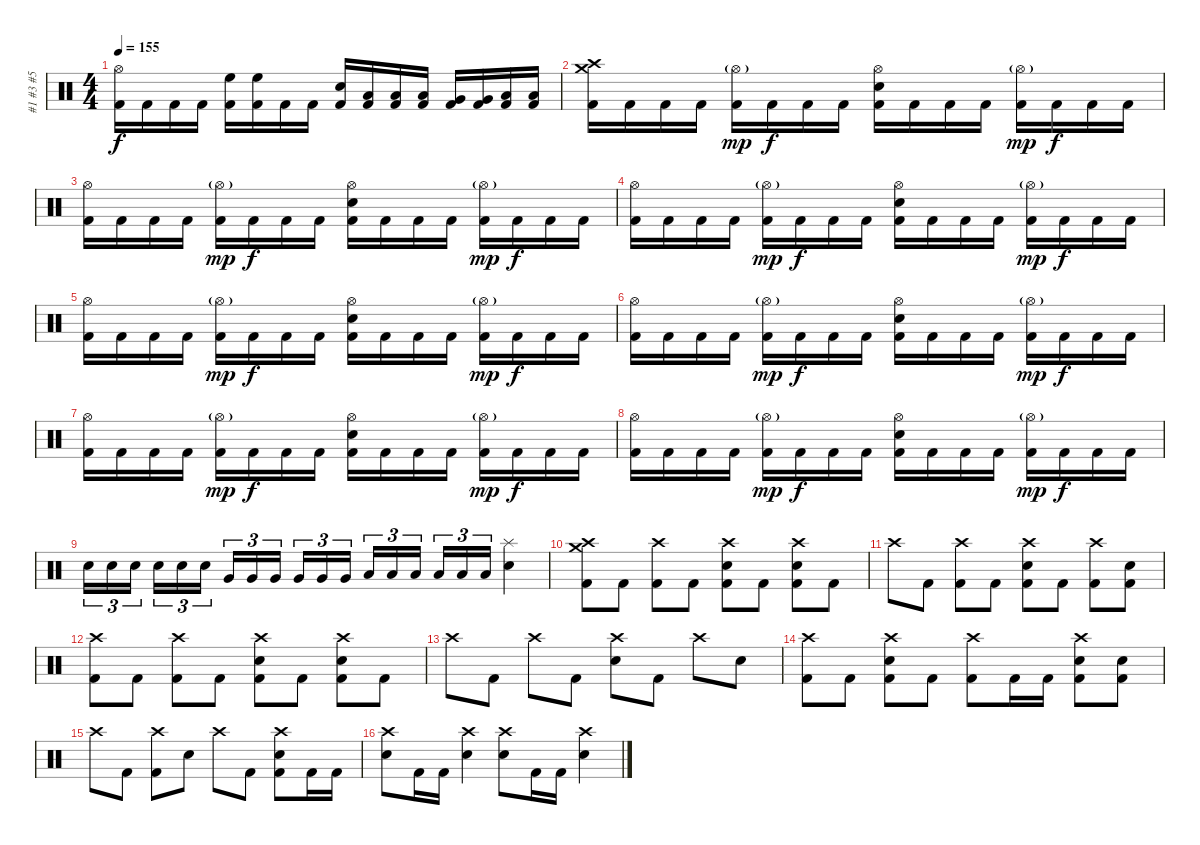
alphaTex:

\track ("#1 #3 #5" "#1 #3 #5") {instrument percussion}
\staff {score}
\articulation defaults
\ts (4 4)
\tempo 155
\clef neutral
\ks c
("Hi-Hat (open)" "Kick (hit) 2").16{dy f} "Kick (hit) 2".16 "Kick (hit) 2".16 "Kick (hit) 2".16 ("High Floor Tom (hit)" "Kick (hit) 2").16 ("High Floor Tom (hit)" "Kick (hit) 2").16 "Kick (hit) 2".16 "Kick (hit) 2".16 ("Electric Snare (hit)" "Kick (hit) 2").16 ("Low Tom (hit)" "Kick (hit) 2").16 ("Low Tom (hit)" "Kick (hit) 2").16 ("Low Tom (hit)" "Kick (hit) 2").16 ("Very Low Tom (hit)" "Kick (hit) 2").16 ("Very Low Tom (hit)" "Kick (hit) 2").16 ("Low Floor Tom (hit)" "Kick (hit) 2").16 ("Low Floor Tom (hit)" "Kick (hit) 2").16 |
("Crash high (hit)" "Crash medium (hit)" "Kick (hit) 2").16 "Kick (hit) 2".16 "Kick (hit) 2".16 "Kick (hit) 2".16 ("Hi-Hat (open)"{g} "Kick (hit) 2").16{dy mp} "Kick (hit) 2".16{dy f} "Kick (hit) 2".16 "Kick (hit) 2".16 ("Hi-Hat (open)" "Electric Snare (hit)" "Kick (hit) 2").16 "Kick (hit) 2".16 "Kick (hit) 2".16 "Kick (hit) 2".16 ("Hi-Hat (open)"{g} "Kick (hit) 2").16{dy mp} "Kick (hit) 2".16{dy f} "Kick (hit) 2".16 "Kick (hit) 2".16 |
("Hi-Hat (open)" "Kick (hit) 2").16 "Kick (hit) 2".16 "Kick (hit) 2".16 "Kick (hit) 2".16 ("Hi-Hat (open)"{g} "Kick (hit) 2").16{dy mp} "Kick (hit) 2".16{dy f} "Kick (hit) 2".16 "Kick (hit) 2".16 ("Hi-Hat (open)" "Electric Snare (hit)" "Kick (hit) 2").16 "Kick (hit) 2".16 "Kick (hit) 2".16 "Kick (hit) 2".16 ("Hi-Hat (open)"{g} "Kick (hit) 2").16{dy mp} "Kick (hit) 2".16{dy f} "Kick (hit) 2".16 "Kick (hit) 2".16 |
("Hi-Hat (open)" "Kick (hit) 2").16 "Kick (hit) 2".16 "Kick (hit) 2".16 "Kick (hit) 2".16 ("Hi-Hat (open)"{g} "Kick (hit) 2").16{dy mp} "Kick (hit) 2".16{dy f} "Kick (hit) 2".16 "Kick (hit) 2".16 ("Hi-Hat (open)" "Electric Snare (hit)" "Kick (hit) 2").16 "Kick (hit) 2".16 "Kick (hit) 2".16 "Kick (hit) 2".16 ("Hi-Hat (open)"{g} "Kick (hit) 2").16{dy mp} "Kick (hit) 2".16{dy f} "Kick (hit) 2".16 "Kick (hit) 2".16 |
("Hi-Hat (open)" "Kick (hit) 2").16 "Kick (hit) 2".16 "Kick (hit) 2".16 "Kick (hit) 2".16 ("Hi-Hat (open)"{g} "Kick (hit) 2").16{dy mp} "Kick (hit) 2".16{dy f} "Kick (hit) 2".16 "Kick (hit) 2".16 ("Hi-Hat (open)" "Electric Snare (hit)" "Kick (hit) 2").16 "Kick (hit) 2".16 "Kick (hit) 2".16 "Kick (hit) 2".16 ("Hi-Hat (open)"{g} "Kick (hit) 2").16{dy mp} "Kick (hit) 2".16{dy f} "Kick (hit) 2".16 "Kick (hit) 2".16 |
("Hi-Hat (open)" "Kick (hit) 2").16 "Kick (hit) 2".16 "Kick (hit) 2".16 "Kick (hit) 2".16 ("Hi-Hat (open)"{g} "Kick (hit) 2").16{dy mp} "Kick (hit) 2".16{dy f} "Kick (hit) 2".16 "Kick (hit) 2".16 ("Hi-Hat (open)" "Electric Snare (hit)" "Kick (hit) 2").16 "Kick (hit) 2".16 "Kick (hit) 2".16 "Kick (hit) 2".16 ("Hi-Hat (open)"{g} "Kick (hit) 2").16{dy mp} "Kick (hit) 2".16{dy f} "Kick (hit) 2".16 "Kick (hit) 2".16 |
("Hi-Hat (open)" "Kick (hit) 2").16 "Kick (hit) 2".16 "Kick (hit) 2".16 "Kick (hit) 2".16 ("Hi-Hat (open)"{g} "Kick (hit) 2").16{dy mp} "Kick (hit) 2".16{dy f} "Kick (hit) 2".16 "Kick (hit) 2".16 ("Hi-Hat (open)" "Electric Snare (hit)" "Kick (hit) 2").16 "Kick (hit) 2".16 "Kick (hit) 2".16 "Kick (hit) 2".16 ("Hi-Hat (open)"{g} "Kick (hit) 2").16{dy mp} "Kick (hit) 2".16{dy f} "Kick (hit) 2".16 "Kick (hit) 2".16 |
("Hi-Hat (open)" "Kick (hit) 2").16 "Kick (hit) 2".16 "Kick (hit) 2".16 "Kick (hit) 2".16 ("Hi-Hat (open)"{g} "Kick (hit) 2").16{dy mp} "Kick (hit) 2".16{dy f} "Kick (hit) 2".16 "Kick (hit) 2".16 ("Hi-Hat (open)" "Electric Snare (hit)" "Kick (hit) 2").16 "Kick (hit) 2".16 "Kick (hit) 2".16 "Kick (hit) 2".16 ("Hi-Hat (open)"{g} "Kick (hit) 2").16{dy mp} "Kick (hit) 2".16{dy f} "Kick (hit) 2".16 "Kick (hit) 2".16 |
"Electric Snare (hit)".16{tu (3 2)} "Electric Snare (hit)".16{tu (3 2)} "Electric Snare (hit)".16{tu (3 2)} "Electric Snare (hit)".16{tu (3 2)} "Electric Snare (hit)".16{tu (3 2)} "Electric Snare (hit)".16{tu (3 2)} "Very Low Tom (hit)".16{tu (3 2)} "Very Low Tom (hit)".16{tu (3 2)} "Very Low Tom (hit)".16{tu (3 2)} "Very Low Tom (hit)".16{tu (3 2)} "Very Low Tom (hit)".16{tu (3 2)} "Very Low Tom (hit)".16{tu (3 2)} "Low Floor Tom (hit)".16{tu (3 2)} "Low Floor Tom (hit)".16{tu (3 2)} "Low Floor Tom (hit)".16{tu (3 2)} "Low Floor Tom (hit)".16{tu (3 2)} "Low Floor Tom (hit)".16{tu (3 2)} "Low Floor Tom (hit)".16{tu (3 2)} ("Splash (hit)" "Electric Snare (hit)").4 |
\section ("" " ")
("Crash medium (hit)" "Crash high (hit)" "Kick (hit) 2").8 "Kick (hit) 2".8 ("Crash high (hit)" "Kick (hit) 2").8 "Kick (hit) 2".8 ("Crash high (hit)" "Electric Snare (hit)" "Kick (hit) 2").8 "Kick (hit) 2".8 ("Crash high (hit)" "Electric Snare (hit)" "Kick (hit) 2").8 "Kick (hit) 2".8 |
"Crash high (hit)".8 "Kick (hit) 2".8 ("Crash high (hit)" "Kick (hit) 2").8 "Kick (hit) 2".8 ("Crash high (hit)" "Electric Snare (hit)" "Kick (hit) 2").8 "Kick (hit) 2".8 ("Crash high (hit)" "Kick (hit) 2").8 ("Electric Snare (hit)" "Kick (hit) 2").8 |
("Crash high (hit)" "Kick (hit) 2").8 "Kick (hit) 2".8 ("Crash high (hit)" "Kick (hit) 2").8 "Kick (hit) 2".8 ("Crash high (hit)" "Electric Snare (hit)" "Kick (hit) 2").8 "Kick (hit) 2".8 ("Crash high (hit)" "Electric Snare (hit)" "Kick (hit) 2").8 "Kick (hit) 2".8 |
"Crash high (hit)".8 "Kick (hit) 2".8 "Crash high (hit)".8 "Kick (hit) 2".8 ("Crash high (hit)" "Electric Snare (hit)").8 "Kick (hit) 2".8 "Crash high (hit)".8 "Electric Snare (hit)".8 |
("Crash high (hit)" "Kick (hit) 2").8 "Kick (hit) 2".8 ("Crash high (hit)" "Electric Snare (hit)" "Kick (hit) 2").8 "Kick (hit) 2".8 ("Crash high (hit)" "Kick (hit) 2").8 "Kick (hit) 2".16 "Kick (hit) 2".16 ("Crash high (hit)" "Electric Snare (hit)" "Kick (hit) 2").8 ("Electric Snare (hit)" "Kick (hit) 2").8 |
"Crash high (hit)".8 "Kick (hit) 2".8 ("Crash high (hit)" "Kick (hit) 2").8 "Electric Snare (hit)".8 "Crash high (hit)".8 "Kick (hit) 2".8 ("Crash high (hit)" "Electric Snare (hit)" "Kick (hit) 2").8 "Kick (hit) 2".16 "Kick (hit) 2".16 |
("Crash high (hit)" "Electric Snare (hit)").8 "Kick (hit) 2".16 "Kick (hit) 2".16 ("Crash high (hit)" "Electric Snare (hit)").4 ("Crash high (hit)" "Electric Snare (hit)").8 "Kick (hit) 2".16 "Kick (hit) 2".16 ("Crash high (hit)" "Electric Snare (hit)").4
